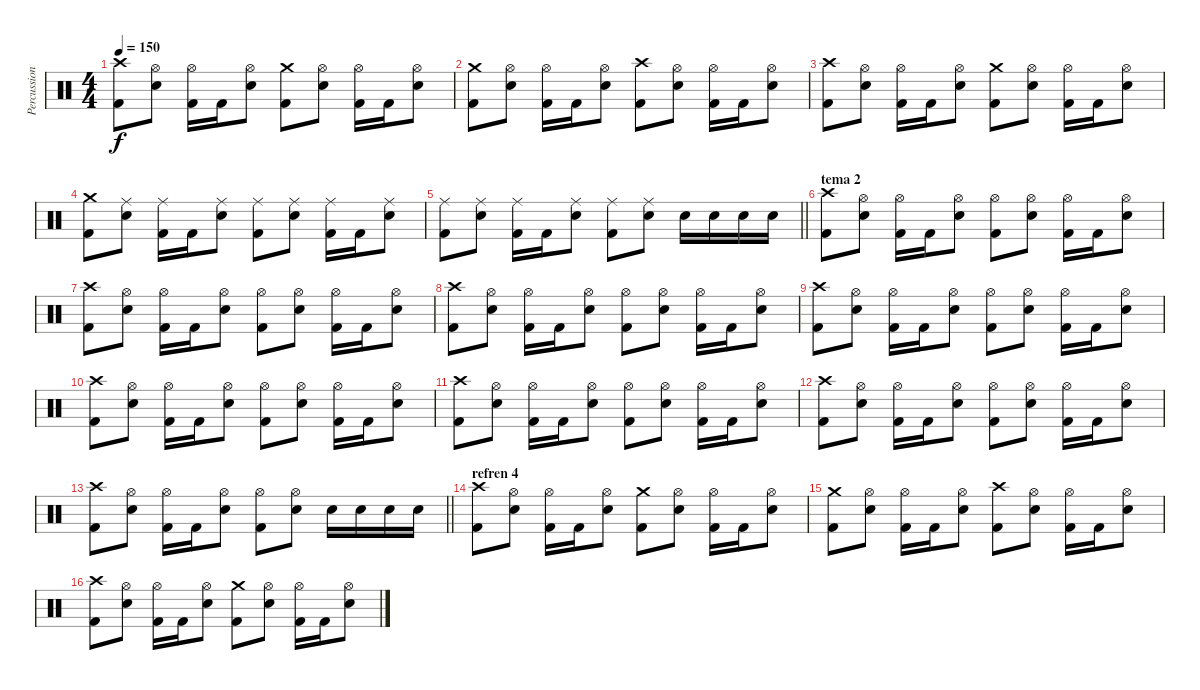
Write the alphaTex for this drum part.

\track ("Percussion" "Percussion") {instrument percussion}
\staff {score}
\articulation defaults
\ts (4 4)
\tempo 150
\clef neutral
\ks c
("Kick (hit) 2" "Crash high (hit)").8{dy f} ("Snare (hit) 2" "Hi-Hat (open)").8 ("Kick (hit) 2" "Hi-Hat (open)").16 "Kick (hit) 2".16 ("Snare (hit) 2" "Hi-Hat (open)").8 ("Kick (hit) 2" "Crash medium (hit)").8 ("Snare (hit) 2" "Hi-Hat (open)").8 ("Kick (hit) 2" "Hi-Hat (open)").16 "Kick (hit) 2".16 ("Snare (hit) 2" "Hi-Hat (open)").8 |
("Kick (hit) 2" "Crash medium (hit)").8 ("Snare (hit) 2" "Hi-Hat (open)").8 ("Kick (hit) 2" "Hi-Hat (open)").16 "Kick (hit) 2".16 ("Snare (hit) 2" "Hi-Hat (open)").8 ("Kick (hit) 2" "Crash high (hit)").8 ("Snare (hit) 2" "Hi-Hat (open)").8 ("Kick (hit) 2" "Hi-Hat (open)").16 "Kick (hit) 2".16 ("Snare (hit) 2" "Hi-Hat (open)").8 |
("Kick (hit) 2" "Crash high (hit)").8 ("Snare (hit) 2" "Hi-Hat (open)").8 ("Kick (hit) 2" "Hi-Hat (open)").16 "Kick (hit) 2".16 ("Snare (hit) 2" "Hi-Hat (open)").8 ("Kick (hit) 2" "Crash medium (hit)").8 ("Snare (hit) 2" "Hi-Hat (open)").8 ("Kick (hit) 2" "Hi-Hat (open)").16 "Kick (hit) 2".16 ("Snare (hit) 2" "Hi-Hat (open)").8 |
("Kick (hit) 2" "Crash medium (hit)").8 ("Snare (hit) 2" "Ride (middle)").8 ("Kick (hit) 2" "Ride (middle)").16 "Kick (hit) 2".16 ("Snare (hit) 2" "Ride (middle)").8 ("Kick (hit) 2" "Ride (middle)").8 ("Snare (hit) 2" "Ride (middle)").8 ("Kick (hit) 2" "Ride (middle)").16 "Kick (hit) 2".16 ("Snare (hit) 2" "Ride (middle)").8 |
\barLineRight lightlight
("Kick (hit) 2" "Ride (middle)").8 ("Snare (hit) 2" "Ride (middle)").8 ("Kick (hit) 2" "Ride (middle)").16 "Kick (hit) 2".16 ("Snare (hit) 2" "Ride (middle)").8 ("Kick (hit) 2" "Ride (middle)").8 ("Snare (hit) 2" "Ride (middle)").8 "Snare (hit) 2".16 "Snare (hit) 2".16 "Snare (hit) 2".16 "Snare (hit) 2".16 |
\section ("" "tema 2")
("Kick (hit) 2" "Crash high (hit)").8 ("Snare (hit) 2" "Hi-Hat (open)").8 ("Kick (hit) 2" "Hi-Hat (open)").16 "Kick (hit) 2".16 ("Snare (hit) 2" "Hi-Hat (open)").8 ("Kick (hit) 2" "Hi-Hat (open)").8 ("Snare (hit) 2" "Hi-Hat (open)").8 ("Kick (hit) 2" "Hi-Hat (open)").16 "Kick (hit) 2".16 ("Snare (hit) 2" "Hi-Hat (open)").8 |
("Kick (hit) 2" "Crash high (hit)").8 ("Snare (hit) 2" "Hi-Hat (open)").8 ("Kick (hit) 2" "Hi-Hat (open)").16 "Kick (hit) 2".16 ("Snare (hit) 2" "Hi-Hat (open)").8 ("Kick (hit) 2" "Hi-Hat (open)").8 ("Snare (hit) 2" "Hi-Hat (open)").8 ("Kick (hit) 2" "Hi-Hat (open)").16 "Kick (hit) 2".16 ("Snare (hit) 2" "Hi-Hat (open)").8 |
("Kick (hit) 2" "Crash high (hit)").8 ("Snare (hit) 2" "Hi-Hat (open)").8 ("Kick (hit) 2" "Hi-Hat (open)").16 "Kick (hit) 2".16 ("Snare (hit) 2" "Hi-Hat (open)").8 ("Kick (hit) 2" "Hi-Hat (open)").8 ("Snare (hit) 2" "Hi-Hat (open)").8 ("Kick (hit) 2" "Hi-Hat (open)").16 "Kick (hit) 2".16 ("Snare (hit) 2" "Hi-Hat (open)").8 |
("Kick (hit) 2" "Crash high (hit)").8 ("Snare (hit) 2" "Hi-Hat (open)").8 ("Kick (hit) 2" "Hi-Hat (open)").16 "Kick (hit) 2".16 ("Snare (hit) 2" "Hi-Hat (open)").8 ("Kick (hit) 2" "Hi-Hat (open)").8 ("Snare (hit) 2" "Hi-Hat (open)").8 ("Kick (hit) 2" "Hi-Hat (open)").16 "Kick (hit) 2".16 ("Snare (hit) 2" "Hi-Hat (open)").8 |
("Kick (hit) 2" "Crash high (hit)").8 ("Snare (hit) 2" "Hi-Hat (open)").8 ("Kick (hit) 2" "Hi-Hat (open)").16 "Kick (hit) 2".16 ("Snare (hit) 2" "Hi-Hat (open)").8 ("Kick (hit) 2" "Hi-Hat (open)").8 ("Snare (hit) 2" "Hi-Hat (open)").8 ("Kick (hit) 2" "Hi-Hat (open)").16 "Kick (hit) 2".16 ("Snare (hit) 2" "Hi-Hat (open)").8 |
("Kick (hit) 2" "Crash high (hit)").8 ("Snare (hit) 2" "Hi-Hat (open)").8 ("Kick (hit) 2" "Hi-Hat (open)").16 "Kick (hit) 2".16 ("Snare (hit) 2" "Hi-Hat (open)").8 ("Kick (hit) 2" "Hi-Hat (open)").8 ("Snare (hit) 2" "Hi-Hat (open)").8 ("Kick (hit) 2" "Hi-Hat (open)").16 "Kick (hit) 2".16 ("Snare (hit) 2" "Hi-Hat (open)").8 |
("Kick (hit) 2" "Crash high (hit)").8 ("Snare (hit) 2" "Hi-Hat (open)").8 ("Kick (hit) 2" "Hi-Hat (open)").16 "Kick (hit) 2".16 ("Snare (hit) 2" "Hi-Hat (open)").8 ("Kick (hit) 2" "Hi-Hat (open)").8 ("Snare (hit) 2" "Hi-Hat (open)").8 ("Kick (hit) 2" "Hi-Hat (open)").16 "Kick (hit) 2".16 ("Snare (hit) 2" "Hi-Hat (open)").8 |
\barLineRight lightlight
("Kick (hit) 2" "Crash high (hit)").8 ("Snare (hit) 2" "Hi-Hat (open)").8 ("Kick (hit) 2" "Hi-Hat (open)").16 "Kick (hit) 2".16 ("Snare (hit) 2" "Hi-Hat (open)").8 ("Kick (hit) 2" "Hi-Hat (open)").8 ("Snare (hit) 2" "Hi-Hat (open)").8 "Snare (hit) 2".16 "Snare (hit) 2".16 "Snare (hit) 2".16 "Snare (hit) 2".16 |
\section ("" "refren 4")
("Kick (hit) 2" "Crash high (hit)").8 ("Snare (hit) 2" "Hi-Hat (open)").8 ("Kick (hit) 2" "Hi-Hat (open)").16 "Kick (hit) 2".16 ("Snare (hit) 2" "Hi-Hat (open)").8 ("Kick (hit) 2" "Crash medium (hit)").8 ("Snare (hit) 2" "Hi-Hat (open)").8 ("Kick (hit) 2" "Hi-Hat (open)").16 "Kick (hit) 2".16 ("Snare (hit) 2" "Hi-Hat (open)").8 |
("Kick (hit) 2" "Crash medium (hit)").8 ("Snare (hit) 2" "Hi-Hat (open)").8 ("Kick (hit) 2" "Hi-Hat (open)").16 "Kick (hit) 2".16 ("Snare (hit) 2" "Hi-Hat (open)").8 ("Kick (hit) 2" "Crash high (hit)").8 ("Snare (hit) 2" "Hi-Hat (open)").8 ("Kick (hit) 2" "Hi-Hat (open)").16 "Kick (hit) 2".16 ("Snare (hit) 2" "Hi-Hat (open)").8 |
("Kick (hit) 2" "Crash high (hit)").8 ("Snare (hit) 2" "Hi-Hat (open)").8 ("Kick (hit) 2" "Hi-Hat (open)").16 "Kick (hit) 2".16 ("Snare (hit) 2" "Hi-Hat (open)").8 ("Kick (hit) 2" "Crash medium (hit)").8 ("Snare (hit) 2" "Hi-Hat (open)").8 ("Kick (hit) 2" "Hi-Hat (open)").16 "Kick (hit) 2".16 ("Snare (hit) 2" "Hi-Hat (open)").8
